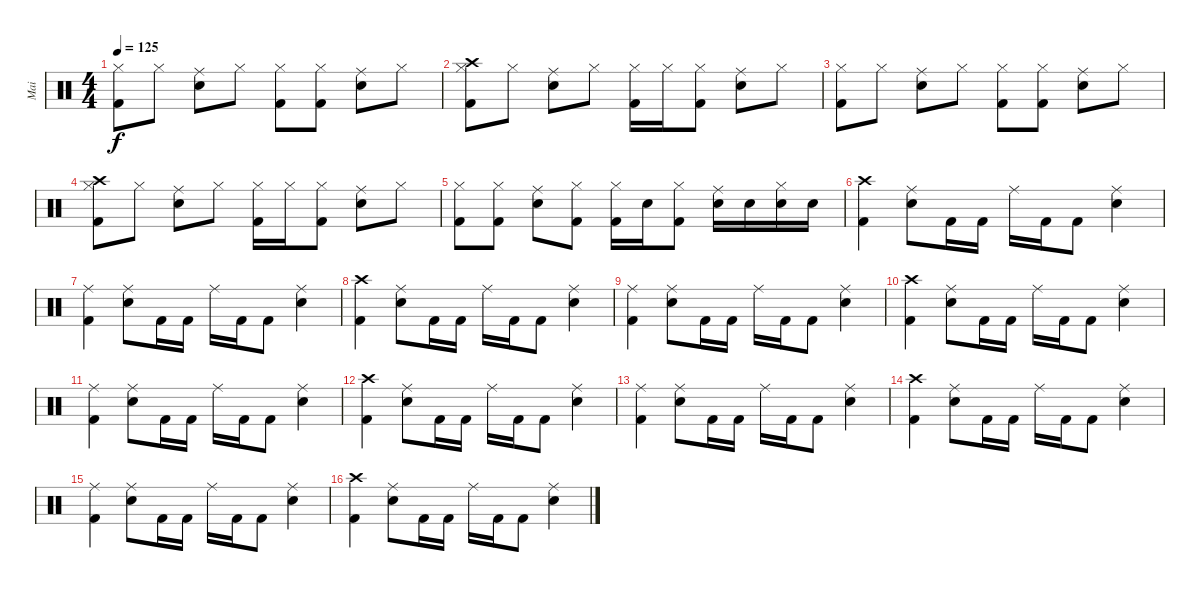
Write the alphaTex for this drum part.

\track ("Mai" "Mai") {instrument percussion}
\staff {score}
\articulation defaults
\ts (4 4)
\tempo 125
\clef neutral
\ks c
("Hi-Hat (closed)" "Kick (hit) 2").8{dy f} "Hi-Hat (closed)".8 ("Ride (middle)" "Snare (hit) 2").8 "Hi-Hat (closed)".8 ("Hi-Hat (closed)" "Kick (hit) 2").8 ("Hi-Hat (closed)" "Kick (hit) 2").8 ("Ride (middle)" "Snare (hit) 2").8 "Hi-Hat (closed)".8 |
("Kick (hit) 2" "Crash high (hit)" "Hi-Hat (closed)").8 "Hi-Hat (closed)".8 ("Ride (middle)" "Snare (hit) 2").8 "Hi-Hat (closed)".8 ("Hi-Hat (closed)" "Kick (hit) 2").16 "Hi-Hat (closed)".16 ("Hi-Hat (closed)" "Kick (hit) 2").8 ("Ride (middle)" "Snare (hit) 2").8 "Hi-Hat (closed)".8 |
("Hi-Hat (closed)" "Kick (hit) 2").8 "Hi-Hat (closed)".8 ("Ride (middle)" "Snare (hit) 2").8 "Hi-Hat (closed)".8 ("Hi-Hat (closed)" "Kick (hit) 2").8 ("Hi-Hat (closed)" "Kick (hit) 2").8 ("Ride (middle)" "Snare (hit) 2").8 "Hi-Hat (closed)".8 |
("Kick (hit) 2" "Crash high (hit)" "Hi-Hat (closed)").8 "Hi-Hat (closed)".8 ("Ride (middle)" "Snare (hit) 2").8 "Hi-Hat (closed)".8 ("Hi-Hat (closed)" "Kick (hit) 2").16 "Hi-Hat (closed)".16 ("Hi-Hat (closed)" "Kick (hit) 2").8 ("Ride (middle)" "Snare (hit) 2").8 "Hi-Hat (closed)".8 |
("Hi-Hat (closed)" "Kick (hit) 2").8 ("Kick (hit) 2" "Hi-Hat (closed)").8 ("Ride (middle)" "Snare (hit) 2").8 ("Kick (hit) 2" "Hi-Hat (closed)").8 ("Hi-Hat (closed)" "Kick (hit) 2").16 "Snare (hit) 2".16 ("Hi-Hat (closed)" "Kick (hit) 2").8 ("Ride (middle)" "Snare (hit) 2").16 "Snare (hit) 2".16 ("Hi-Hat (closed)" "Snare (hit) 2").16 "Snare (hit) 2".16 |
("Crash high (hit)" "Kick (hit) 2").4 ("Ride (middle)" "Snare (hit) 2").8 "Kick (hit) 2".16 "Kick (hit) 2".16 "Ride (middle)".16 "Kick (hit) 2".16 "Kick (hit) 2".8 ("Ride (middle)" "Snare (hit) 2").4 |
("Ride (middle)" "Kick (hit) 2").4 ("Ride (middle)" "Snare (hit) 2").8 "Kick (hit) 2".16 "Kick (hit) 2".16 "Ride (middle)".16 "Kick (hit) 2".16 "Kick (hit) 2".8 ("Ride (middle)" "Snare (hit) 2").4 |
("Crash high (hit)" "Kick (hit) 2").4 ("Ride (middle)" "Snare (hit) 2").8 "Kick (hit) 2".16 "Kick (hit) 2".16 "Ride (middle)".16 "Kick (hit) 2".16 "Kick (hit) 2".8 ("Ride (middle)" "Snare (hit) 2").4 |
("Ride (middle)" "Kick (hit) 2").4 ("Ride (middle)" "Snare (hit) 2").8 "Kick (hit) 2".16 "Kick (hit) 2".16 "Ride (middle)".16 "Kick (hit) 2".16 "Kick (hit) 2".8 ("Ride (middle)" "Snare (hit) 2").4 |
("Crash high (hit)" "Kick (hit) 2").4 ("Ride (middle)" "Snare (hit) 2").8 "Kick (hit) 2".16 "Kick (hit) 2".16 "Ride (middle)".16 "Kick (hit) 2".16 "Kick (hit) 2".8 ("Ride (middle)" "Snare (hit) 2").4 |
("Ride (middle)" "Kick (hit) 2").4 ("Ride (middle)" "Snare (hit) 2").8 "Kick (hit) 2".16 "Kick (hit) 2".16 "Ride (middle)".16 "Kick (hit) 2".16 "Kick (hit) 2".8 ("Ride (middle)" "Snare (hit) 2").4 |
("Crash high (hit)" "Kick (hit) 2").4 ("Ride (middle)" "Snare (hit) 2").8 "Kick (hit) 2".16 "Kick (hit) 2".16 "Ride (middle)".16 "Kick (hit) 2".16 "Kick (hit) 2".8 ("Ride (middle)" "Snare (hit) 2").4 |
("Ride (middle)" "Kick (hit) 2").4 ("Ride (middle)" "Snare (hit) 2").8 "Kick (hit) 2".16 "Kick (hit) 2".16 "Ride (middle)".16 "Kick (hit) 2".16 "Kick (hit) 2".8 ("Ride (middle)" "Snare (hit) 2").4 |
("Crash high (hit)" "Kick (hit) 2").4 ("Ride (middle)" "Snare (hit) 2").8 "Kick (hit) 2".16 "Kick (hit) 2".16 "Ride (middle)".16 "Kick (hit) 2".16 "Kick (hit) 2".8 ("Ride (middle)" "Snare (hit) 2").4 |
("Ride (middle)" "Kick (hit) 2").4 ("Ride (middle)" "Snare (hit) 2").8 "Kick (hit) 2".16 "Kick (hit) 2".16 "Ride (middle)".16 "Kick (hit) 2".16 "Kick (hit) 2".8 ("Ride (middle)" "Snare (hit) 2").4 |
("Crash high (hit)" "Kick (hit) 2").4 ("Ride (middle)" "Snare (hit) 2").8 "Kick (hit) 2".16 "Kick (hit) 2".16 "Ride (middle)".16 "Kick (hit) 2".16 "Kick (hit) 2".8 ("Ride (middle)" "Snare (hit) 2").4
